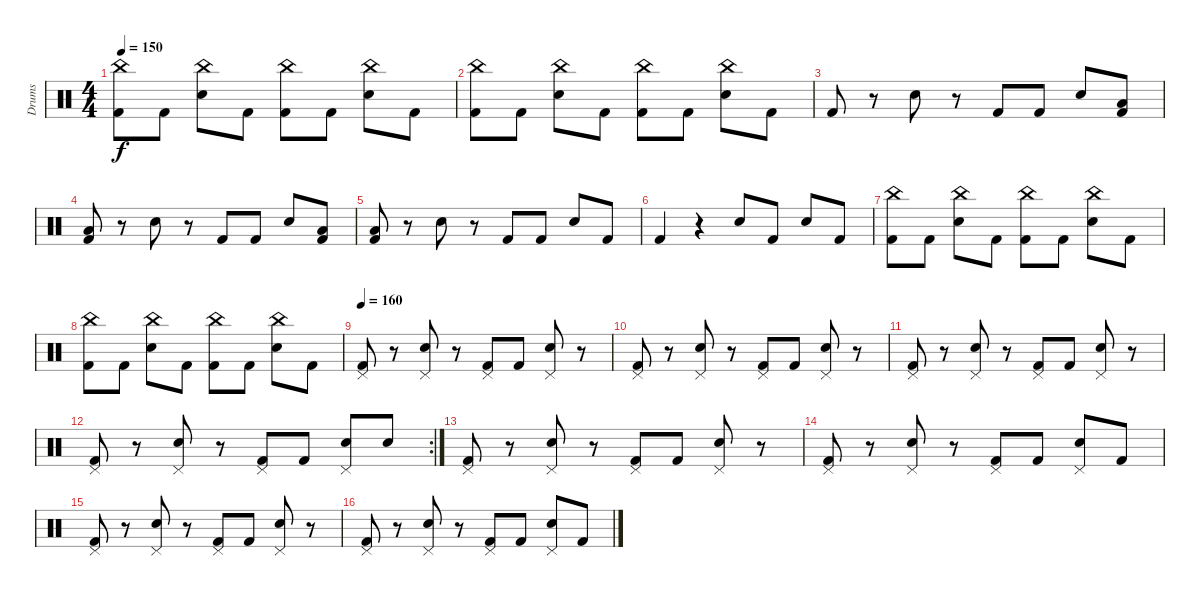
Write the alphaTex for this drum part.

\track ("Drums" "Drums") {instrument percussion}
\staff {score}
\articulation defaults
\ts (4 4)
\tempo 150
\clef neutral
\ks c
("China (hit)" "Kick (hit) 2").8{dy f} "Kick (hit) 2".8 ("China (hit)" "Snare (hit) 2").8 "Kick (hit) 2".8 ("China (hit)" "Kick (hit) 2").8 "Kick (hit) 2".8 ("China (hit)" "Snare (hit) 2").8 "Kick (hit) 2".8 |
("China (hit)" "Kick (hit) 2").8 "Kick (hit) 2".8 ("China (hit)" "Snare (hit) 2").8 "Kick (hit) 2".8 ("China (hit)" "Kick (hit) 2").8 "Kick (hit) 2".8 ("China (hit)" "Snare (hit) 2").8 "Kick (hit) 2".8 |
"Kick (hit) 2".8 r.8 "Snare (hit) 2".8 r.8 "Kick (hit) 2".8 "Kick (hit) 2".8 "Snare (hit) 2".8 ("Low Tom (hit)" "Kick (hit) 2").8 |
("Low Tom (hit)" "Kick (hit) 2").8 r.8 "Snare (hit) 2".8 r.8 "Kick (hit) 2".8 "Kick (hit) 2".8 "Snare (hit) 2".8 ("Low Tom (hit)" "Kick (hit) 2").8 |
("Low Tom (hit)" "Kick (hit) 2").8 r.8 "Snare (hit) 2".8 r.8 "Kick (hit) 2".8 "Kick (hit) 2".8 "Snare (hit) 2".8 "Kick (hit) 2".8 |
"Kick (hit) 2".4 r.4 "Snare (hit) 2".8 "Kick (hit) 2".8 "Snare (hit) 2".8 "Kick (hit) 2".8 |
("China (hit)" "Kick (hit) 2").8 "Kick (hit) 2".8 ("China (hit)" "Snare (hit) 2").8 "Kick (hit) 2".8 ("China (hit)" "Kick (hit) 2").8 "Kick (hit) 2".8 ("China (hit)" "Snare (hit) 2").8 "Kick (hit) 2".8 |
("China (hit)" "Kick (hit) 2").8 "Kick (hit) 2".8 ("China (hit)" "Snare (hit) 2").8 "Kick (hit) 2".8 ("China (hit)" "Kick (hit) 2").8 "Kick (hit) 2".8 ("China (hit)" "Snare (hit) 2").8 "Kick (hit) 2".8 |
\tempo 160
("Pedal Hi-Hat (hit)" "Kick (hit) 2").8 r.8 ("Pedal Hi-Hat (hit)" "Snare (hit) 2").8 r.8 ("Pedal Hi-Hat (hit)" "Kick (hit) 2").8 "Kick (hit) 2".8 ("Pedal Hi-Hat (hit)" "Snare (hit) 2").8 r.8 |
("Pedal Hi-Hat (hit)" "Kick (hit) 2").8 r.8 ("Pedal Hi-Hat (hit)" "Snare (hit) 2").8 r.8 ("Pedal Hi-Hat (hit)" "Kick (hit) 2").8 "Kick (hit) 2".8 ("Pedal Hi-Hat (hit)" "Snare (hit) 2").8 r.8 |
("Pedal Hi-Hat (hit)" "Kick (hit) 2").8 r.8 ("Pedal Hi-Hat (hit)" "Snare (hit) 2").8 r.8 ("Pedal Hi-Hat (hit)" "Kick (hit) 2").8 "Kick (hit) 2".8 ("Pedal Hi-Hat (hit)" "Snare (hit) 2").8 r.8 |
\rc 2
("Pedal Hi-Hat (hit)" "Kick (hit) 2").8 r.8 ("Pedal Hi-Hat (hit)" "Snare (hit) 2").8 r.8 ("Pedal Hi-Hat (hit)" "Kick (hit) 2").8 "Kick (hit) 2".8 ("Pedal Hi-Hat (hit)" "Snare (hit) 2").8 "Snare (hit) 2".8 |
("Pedal Hi-Hat (hit)" "Kick (hit) 2").8 r.8 ("Pedal Hi-Hat (hit)" "Snare (hit) 2").8 r.8 ("Pedal Hi-Hat (hit)" "Kick (hit) 2").8 "Kick (hit) 2".8 ("Pedal Hi-Hat (hit)" "Snare (hit) 2").8 r.8 |
("Pedal Hi-Hat (hit)" "Kick (hit) 2").8 r.8 ("Pedal Hi-Hat (hit)" "Snare (hit) 2").8 r.8 ("Pedal Hi-Hat (hit)" "Kick (hit) 2").8 "Kick (hit) 2".8 ("Pedal Hi-Hat (hit)" "Snare (hit) 2").8 "Kick (hit) 2".8 |
("Pedal Hi-Hat (hit)" "Kick (hit) 2").8 r.8 ("Pedal Hi-Hat (hit)" "Snare (hit) 2").8 r.8 ("Pedal Hi-Hat (hit)" "Kick (hit) 2").8 "Kick (hit) 2".8 ("Pedal Hi-Hat (hit)" "Snare (hit) 2").8 r.8 |
("Pedal Hi-Hat (hit)" "Kick (hit) 2").8 r.8 ("Pedal Hi-Hat (hit)" "Snare (hit) 2").8 r.8 ("Pedal Hi-Hat (hit)" "Kick (hit) 2").8 "Kick (hit) 2".8 ("Pedal Hi-Hat (hit)" "Snare (hit) 2").8 "Kick (hit) 2".8
